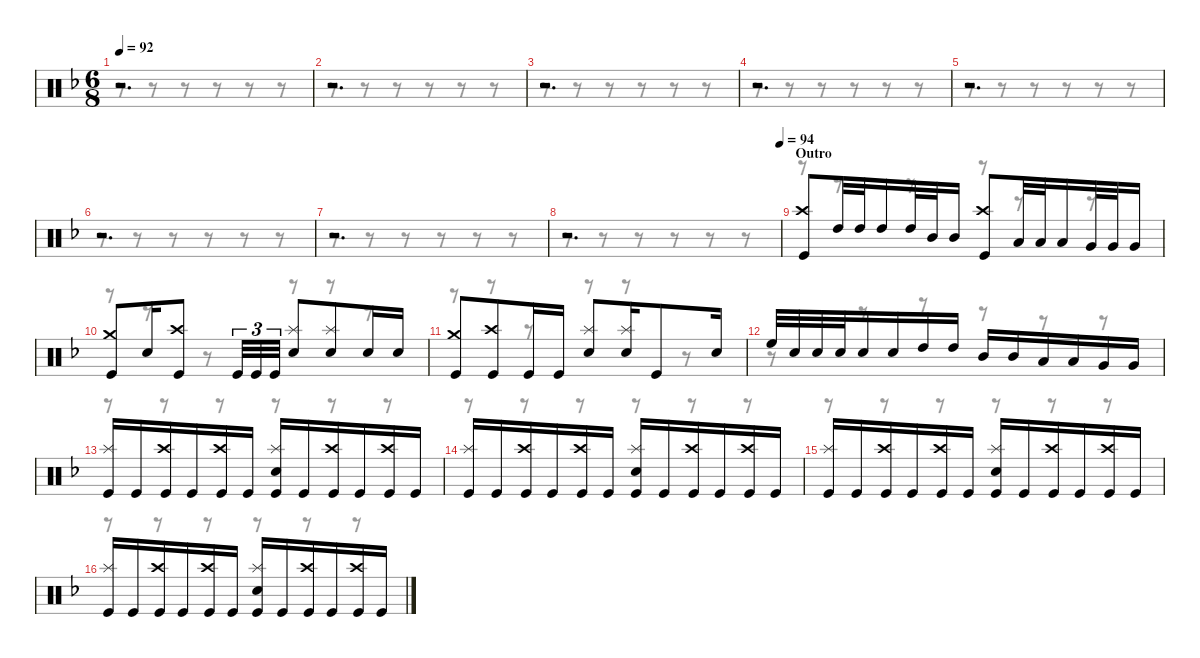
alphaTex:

\defaultSystemsLayout 4
\hideDynamics
\bracketExtendMode nobrackets
\singleTrackTrackNamePolicy hidden
\multiTrackTrackNamePolicy hidden
\otherSystemsTrackNameOrientation horizontal
\track ("M. Lopez" "drm.") {instrument percussion}
\staff {score}
\articulation defaults
\voice
\ts (6 8)
\tempo 92
\clef neutral
\ks dminor
r.2{d dy mf beam Up} |
r.2{d beam Up} |
r.2{d beam Up} |
r.2{d beam Up} |
r.2{d beam Up} |
r.2{d beam Up} |
r.2{d beam Up} |
\tempo (94 1)
r.2{d beam Up} |
\section ("" "Outro")
("Crash high (hit)"{acc forcenatural} "Kick (hit)"{acc forcenatural}).8{dy f beam Up} "High Tom (hit)"{acc forcenatural}.32{beam Up} "High Tom (hit)"{acc forcenatural}.32{beam Up} "High Tom (hit)"{acc forcenatural}.16{beam Up} "High Tom (hit)"{acc forcenatural}.32{beam Up} "Mid Tom (hit)"{acc forcenatural}.32{beam Up} "Mid Tom (hit)"{acc forcenatural}.16{beam Up} ("Crash high (hit)"{acc forcenatural} "Kick (hit)"{acc forcenatural}).8{beam Up} "Low Tom (hit)"{acc forcenatural}.32{beam Up} "Low Tom (hit)"{acc forcenatural}.32{beam Up} "Low Tom (hit)"{acc forcenatural}.16{beam Up} "Very Low Tom (hit)"{acc forcenatural}.32{beam Up} "Very Low Tom (hit)"{acc forcenatural}.32{beam Up} "Very Low Tom (hit)"{acc forcenatural}.16{beam Up} |
("Crash medium (hit)"{acc forcenatural} "Kick (hit)"{acc forcenatural}).8{beam Up} "Snare (hit) 2"{acc forcenatural}.16{beam Up} ("Crash high (hit)"{acc forcenatural} "Kick (hit)"{acc forcenatural}).8{beam Up} "Kick (hit)"{acc forcenatural}.32{tu (3 2) beam Up} "Kick (hit)"{acc forcenatural}.32{tu (3 2) beam Up} "Kick (hit)"{acc forcenatural}.32{tu (3 2) beam Up} ("Splash (hit)"{acc forcenatural} "Snare (hit) 2"{acc forcenatural}).8{beam Up} ("Splash (hit)"{acc forcenatural} "Snare (hit) 2"{acc forcenatural}).8{beam Up} "Snare (hit) 2"{acc forcenatural}.16{beam Up} "Snare (hit) 2"{acc forcenatural}.16{beam Up} |
("Crash medium (hit)"{acc forcenatural} "Kick (hit)"{acc forcenatural}).8{beam Up} ("Crash high (hit)"{acc forcenatural} "Kick (hit)"{acc forcenatural}).8{beam Up} "Kick (hit)"{acc forcenatural}.16{beam Up} "Kick (hit)"{acc forcenatural}.16{beam Up} ("Splash (hit)"{acc forcenatural} "Snare (hit) 2"{acc forcenatural}).8{beam Up} ("Splash (hit)"{acc forcenatural} "Snare (hit) 2"{acc forcenatural}).16{beam Up} "Kick (hit)"{acc forcenatural}.8{beam Up} "Snare (hit) 2"{acc forcenatural}.16{beam Up} |
"High Floor Tom (hit)"{acc forcenatural}.32{beam Up} "Snare (hit) 2"{acc forcenatural}.32{beam Up} "Snare (hit) 2"{acc forcenatural}.32{beam Up} "Snare (hit) 2"{acc forcenatural}.32{beam Up} "Snare (hit) 2"{acc forcenatural}.16{beam Up} "Snare (hit) 2"{acc forcenatural}.16{beam Up} "High Tom (hit)"{acc forcenatural}.16{beam Up} "High Tom (hit)"{acc forcenatural}.16{beam Up} "Mid Tom (hit)"{acc forcenatural}.16{beam Up} "Mid Tom (hit)"{acc forcenatural}.16{beam Up} "Low Tom (hit)"{acc forcenatural}.16{beam Up} "Low Tom (hit)"{acc forcenatural}.16{beam Up} "Very Low Tom (hit)"{acc forcenatural}.16{beam Up} "Very Low Tom (hit)"{acc forcenatural}.16{beam Up} |
("Splash (hit)"{acc forcenatural} "Kick (hit)"{acc forcenatural}).16{beam Up} "Kick (hit)"{acc forcenatural}.16{beam Up} ("Crash high (hit)"{acc forcenatural} "Kick (hit)"{acc forcenatural}).16{beam Up} "Kick (hit)"{acc forcenatural}.16{beam Up} ("Crash high (hit)"{acc forcenatural} "Kick (hit)"{acc forcenatural}).16{beam Up} "Kick (hit)"{acc forcenatural}.16{beam Up} ("Splash (hit)"{acc forcenatural} "Snare (hit) 2"{acc forcenatural} "Kick (hit)"{acc forcenatural}).16{beam Up} "Kick (hit)"{acc forcenatural}.16{beam Up} ("Crash high (hit)"{acc forcenatural} "Kick (hit)"{acc forcenatural}).16{beam Up} "Kick (hit)"{acc forcenatural}.16{beam Up} ("Crash high (hit)"{acc forcenatural} "Kick (hit)"{acc forcenatural}).16{beam Up} "Kick (hit)"{acc forcenatural}.16{beam Up} |
("Splash (hit)"{acc forcenatural} "Kick (hit)"{acc forcenatural}).16{beam Up} "Kick (hit)"{acc forcenatural}.16{beam Up} ("Crash high (hit)"{acc forcenatural} "Kick (hit)"{acc forcenatural}).16{beam Up} "Kick (hit)"{acc forcenatural}.16{beam Up} ("Crash high (hit)"{acc forcenatural} "Kick (hit)"{acc forcenatural}).16{beam Up} "Kick (hit)"{acc forcenatural}.16{beam Up} ("Splash (hit)"{acc forcenatural} "Snare (hit) 2"{acc forcenatural} "Kick (hit)"{acc forcenatural}).16{beam Up} "Kick (hit)"{acc forcenatural}.16{beam Up} ("Crash high (hit)"{acc forcenatural} "Kick (hit)"{acc forcenatural}).16{beam Up} "Kick (hit)"{acc forcenatural}.16{beam Up} ("Crash high (hit)"{acc forcenatural} "Kick (hit)"{acc forcenatural}).16{beam Up} "Kick (hit)"{acc forcenatural}.16{beam Up} |
("Splash (hit)"{acc forcenatural} "Kick (hit)"{acc forcenatural}).16{beam Up} "Kick (hit)"{acc forcenatural}.16{beam Up} ("Crash high (hit)"{acc forcenatural} "Kick (hit)"{acc forcenatural}).16{beam Up} "Kick (hit)"{acc forcenatural}.16{beam Up} ("Crash high (hit)"{acc forcenatural} "Kick (hit)"{acc forcenatural}).16{beam Up} "Kick (hit)"{acc forcenatural}.16{beam Up} ("Splash (hit)"{acc forcenatural} "Snare (hit) 2"{acc forcenatural} "Kick (hit)"{acc forcenatural}).16{beam Up} "Kick (hit)"{acc forcenatural}.16{beam Up} ("Crash high (hit)"{acc forcenatural} "Kick (hit)"{acc forcenatural}).16{beam Up} "Kick (hit)"{acc forcenatural}.16{beam Up} ("Crash high (hit)"{acc forcenatural} "Kick (hit)"{acc forcenatural}).16{beam Up} "Kick (hit)"{acc forcenatural}.16{beam Up} |
("Splash (hit)"{acc forcenatural} "Kick (hit)"{acc forcenatural}).16{beam Up} "Kick (hit)"{acc forcenatural}.16{beam Up} ("Crash high (hit)"{acc forcenatural} "Kick (hit)"{acc forcenatural}).16{beam Up} "Kick (hit)"{acc forcenatural}.16{beam Up} ("Crash high (hit)"{acc forcenatural} "Kick (hit)"{acc forcenatural}).16{beam Up} "Kick (hit)"{acc forcenatural}.16{beam Up} ("Splash (hit)"{acc forcenatural} "Snare (hit) 2"{acc forcenatural} "Kick (hit)"{acc forcenatural}).16{beam Up} "Kick (hit)"{acc forcenatural}.16{beam Up} ("Crash high (hit)"{acc forcenatural} "Kick (hit)"{acc forcenatural}).16{beam Up} "Kick (hit)"{acc forcenatural}.16{beam Up} ("Crash high (hit)"{acc forcenatural} "Kick (hit)"{acc forcenatural}).16{beam Up} "Kick (hit)"{acc forcenatural}.16{beam Up}
\voice
\clef neutral
\ottava regular
\simile none
\ks dminor
r.8{dy mf beam Down} r.8{beam Down} r.8{beam Down} r.8{beam Down} r.8{beam Down} r.8{beam Down} |
r.8{beam Down} r.8{beam Down} r.8{beam Down} r.8{beam Down} r.8{beam Down} r.8{beam Down} |
r.8{beam Down} r.8{beam Down} r.8{beam Down} r.8{beam Down} r.8{beam Down} r.8{beam Down} |
r.8{beam Down} r.8{beam Down} r.8{beam Down} r.8{beam Down} r.8{beam Down} r.8{beam Down} |
r.8{beam Down} r.8{beam Down} r.8{beam Down} r.8{beam Down} r.8{beam Down} r.8{beam Down} |
r.8{beam Down} r.8{beam Down} r.8{beam Down} r.8{beam Down} r.8{beam Down} r.8{beam Down} |
r.8{beam Down} r.8{beam Down} r.8{beam Down} r.8{beam Down} r.8{beam Down} r.8{beam Down} |
r.8{beam Down} r.8{beam Down} r.8{beam Down} r.8{beam Down} r.8{beam Down} r.8{beam Down} |
r.8{beam Down} r.8{beam Down} r.8{beam Down} r.8{beam Down} r.8{beam Down} r.8{beam Down} |
r.8{beam Down} r.8{beam Down} r.8{beam Down} r.8{beam Down} r.8{beam Down} r.8{beam Down} |
r.8{beam Down} r.8{beam Down} r.8{beam Down} r.8{beam Down} r.8{beam Down} r.8{beam Down} |
r.8{beam Down} r.8{beam Down} r.8{beam Down} r.8{beam Down} r.8{beam Down} r.8{beam Down} |
r.8{beam Down} r.8{beam Down} r.8{beam Down} r.8{beam Down} r.8{beam Down} r.8{beam Down} |
r.8{beam Down} r.8{beam Down} r.8{beam Down} r.8{beam Down} r.8{beam Down} r.8{beam Down} |
r.8{beam Down} r.8{beam Down} r.8{beam Down} r.8{beam Down} r.8{beam Down} r.8{beam Down} |
r.8{beam Down} r.8{beam Down} r.8{beam Down} r.8{beam Down} r.8{beam Down} r.8{beam Down}
